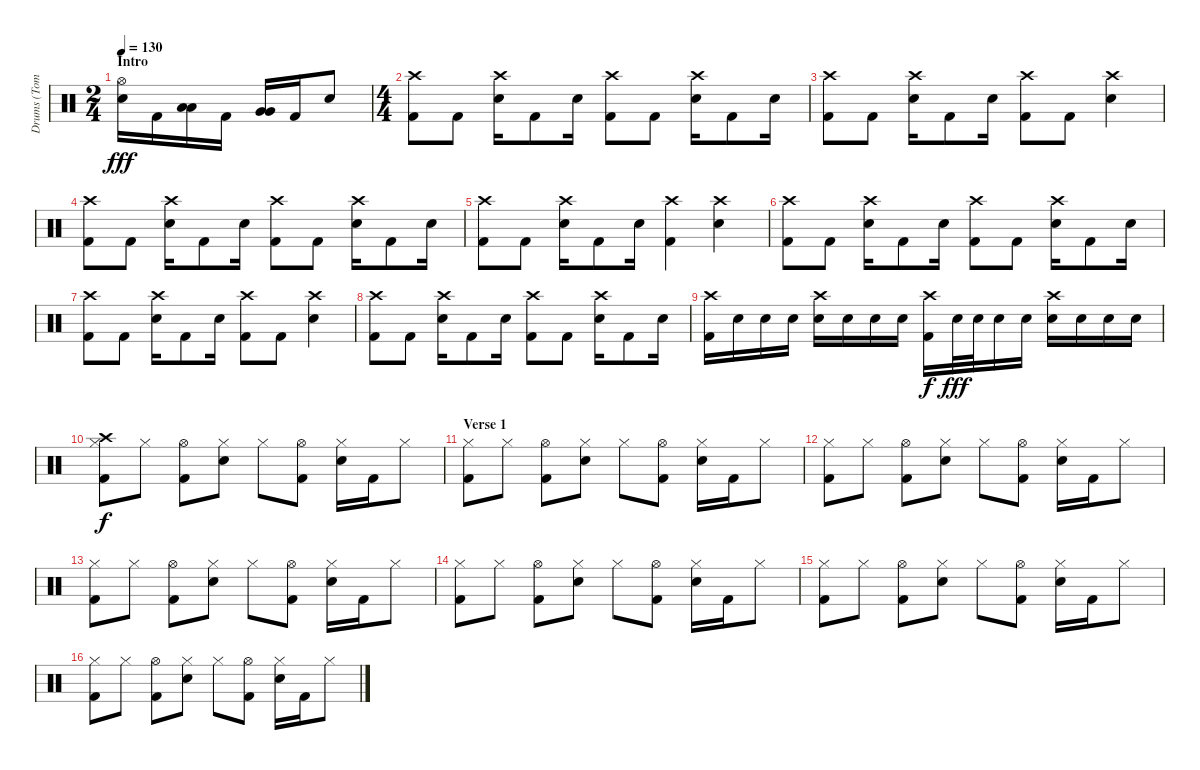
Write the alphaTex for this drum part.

\track ("Drums (Tommy Decker)" "Drums (Tom") {instrument percussion}
\staff {score}
\articulation defaults
\ts (2 4)
\section ("" "Intro")
\tempo 130
\clef neutral
\ks c
("Hi-Hat (open)" "Electric Snare (hit)").16{dy fff} "Kick (hit) 2".16 ("Low Tom (hit)" "Low Tom (hit)").16 "Kick (hit) 2".16 ("Very Low Tom (hit)" "Very Low Tom (hit)").16 "Kick (hit) 2".16 "Electric Snare (hit)".8 |
\ts (4 4)
("Crash high (hit)" "Kick (hit) 2").8 "Kick (hit) 2".8 ("Crash high (hit)" "Electric Snare (hit)").16 "Kick (hit) 2".8 "Electric Snare (hit)".16 ("Crash high (hit)" "Kick (hit) 2").8 "Kick (hit) 2".8 ("Crash high (hit)" "Electric Snare (hit)").16 "Kick (hit) 2".8 "Electric Snare (hit)".16 |
("Crash high (hit)" "Kick (hit) 2").8 "Kick (hit) 2".8 ("Crash high (hit)" "Electric Snare (hit)").16 "Kick (hit) 2".8 "Electric Snare (hit)".16 ("Crash high (hit)" "Kick (hit) 2").8 "Kick (hit) 2".8 ("Crash high (hit)" "Electric Snare (hit)").4 |
("Crash high (hit)" "Kick (hit) 2").8 "Kick (hit) 2".8 ("Crash high (hit)" "Electric Snare (hit)").16 "Kick (hit) 2".8 "Electric Snare (hit)".16 ("Crash high (hit)" "Kick (hit) 2").8 "Kick (hit) 2".8 ("Crash high (hit)" "Electric Snare (hit)").16 "Kick (hit) 2".8 "Electric Snare (hit)".16 |
("Crash high (hit)" "Kick (hit) 2").8 "Kick (hit) 2".8 ("Crash high (hit)" "Electric Snare (hit)").16 "Kick (hit) 2".8 "Electric Snare (hit)".16 ("Crash high (hit)" "Kick (hit) 2").4 ("Crash high (hit)" "Electric Snare (hit)").4 |
("Crash high (hit)" "Kick (hit) 2").8 "Kick (hit) 2".8 ("Crash high (hit)" "Electric Snare (hit)").16 "Kick (hit) 2".8 "Electric Snare (hit)".16 ("Crash high (hit)" "Kick (hit) 2").8 "Kick (hit) 2".8 ("Crash high (hit)" "Electric Snare (hit)").16 "Kick (hit) 2".8 "Electric Snare (hit)".16 |
("Crash high (hit)" "Kick (hit) 2").8 "Kick (hit) 2".8 ("Crash high (hit)" "Electric Snare (hit)").16 "Kick (hit) 2".8 "Electric Snare (hit)".16 ("Crash high (hit)" "Kick (hit) 2").8 "Kick (hit) 2".8 ("Crash high (hit)" "Electric Snare (hit)").4 |
("Crash high (hit)" "Kick (hit) 2").8 "Kick (hit) 2".8 ("Crash high (hit)" "Electric Snare (hit)").16 "Kick (hit) 2".8 "Electric Snare (hit)".16 ("Crash high (hit)" "Kick (hit) 2").8 "Kick (hit) 2".8 ("Crash high (hit)" "Electric Snare (hit)").16 "Kick (hit) 2".8 "Electric Snare (hit)".16 |
("Crash high (hit)" "Kick (hit) 2").16 "Electric Snare (hit)".16 "Electric Snare (hit)".16 "Electric Snare (hit)".16 ("Crash high (hit)" "Electric Snare (hit)").16 "Electric Snare (hit)".16 "Electric Snare (hit)".16 "Electric Snare (hit)".16 ("Crash high (hit)" "Kick (hit) 2").16{dy f} "Electric Snare (hit)".32{dy fff} "Electric Snare (hit)".32 "Electric Snare (hit)".16 "Electric Snare (hit)".16 ("Crash high (hit)" "Electric Snare (hit)").16 "Electric Snare (hit)".16 "Electric Snare (hit)".16 "Electric Snare (hit)".16 |
("Hi-Hat (closed)" "Crash high (hit)" "Kick (hit) 2").8{dy f} "Hi-Hat (closed)".8 ("Hi-Hat (open)" "Kick (hit) 2").8 ("Hi-Hat (closed)" "Electric Snare (hit)").8 "Hi-Hat (closed)".8 ("Hi-Hat (open)" "Kick (hit) 2").8 ("Hi-Hat (closed)" "Electric Snare (hit)").16 "Kick (hit) 2".16 "Hi-Hat (closed)".8 |
\section ("" "Verse 1")
("Hi-Hat (closed)" "Kick (hit) 2").8 "Hi-Hat (closed)".8 ("Hi-Hat (open)" "Kick (hit) 2").8 ("Hi-Hat (closed)" "Electric Snare (hit)").8 "Hi-Hat (closed)".8 ("Hi-Hat (open)" "Kick (hit) 2").8 ("Hi-Hat (closed)" "Electric Snare (hit)").16 "Kick (hit) 2".16 "Hi-Hat (closed)".8 |
("Hi-Hat (closed)" "Kick (hit) 2").8 "Hi-Hat (closed)".8 ("Hi-Hat (open)" "Kick (hit) 2").8 ("Hi-Hat (closed)" "Electric Snare (hit)").8 "Hi-Hat (closed)".8 ("Hi-Hat (open)" "Kick (hit) 2").8 ("Hi-Hat (closed)" "Electric Snare (hit)").16 "Kick (hit) 2".16 "Hi-Hat (closed)".8 |
("Hi-Hat (closed)" "Kick (hit) 2").8 "Hi-Hat (closed)".8 ("Hi-Hat (open)" "Kick (hit) 2").8 ("Hi-Hat (closed)" "Electric Snare (hit)").8 "Hi-Hat (closed)".8 ("Hi-Hat (open)" "Kick (hit) 2").8 ("Hi-Hat (closed)" "Electric Snare (hit)").16 "Kick (hit) 2".16 "Hi-Hat (closed)".8 |
("Hi-Hat (closed)" "Kick (hit) 2").8 "Hi-Hat (closed)".8 ("Hi-Hat (open)" "Kick (hit) 2").8 ("Hi-Hat (closed)" "Electric Snare (hit)").8 "Hi-Hat (closed)".8 ("Hi-Hat (open)" "Kick (hit) 2").8 ("Hi-Hat (closed)" "Electric Snare (hit)").16 "Kick (hit) 2".16 "Hi-Hat (closed)".8 |
("Hi-Hat (closed)" "Kick (hit) 2").8 "Hi-Hat (closed)".8 ("Hi-Hat (open)" "Kick (hit) 2").8 ("Hi-Hat (closed)" "Electric Snare (hit)").8 "Hi-Hat (closed)".8 ("Hi-Hat (open)" "Kick (hit) 2").8 ("Hi-Hat (closed)" "Electric Snare (hit)").16 "Kick (hit) 2".16 "Hi-Hat (closed)".8 |
("Hi-Hat (closed)" "Kick (hit) 2").8 "Hi-Hat (closed)".8 ("Hi-Hat (open)" "Kick (hit) 2").8 ("Hi-Hat (closed)" "Electric Snare (hit)").8 "Hi-Hat (closed)".8 ("Hi-Hat (open)" "Kick (hit) 2").8 ("Hi-Hat (closed)" "Electric Snare (hit)").16 "Kick (hit) 2".16 "Hi-Hat (closed)".8
